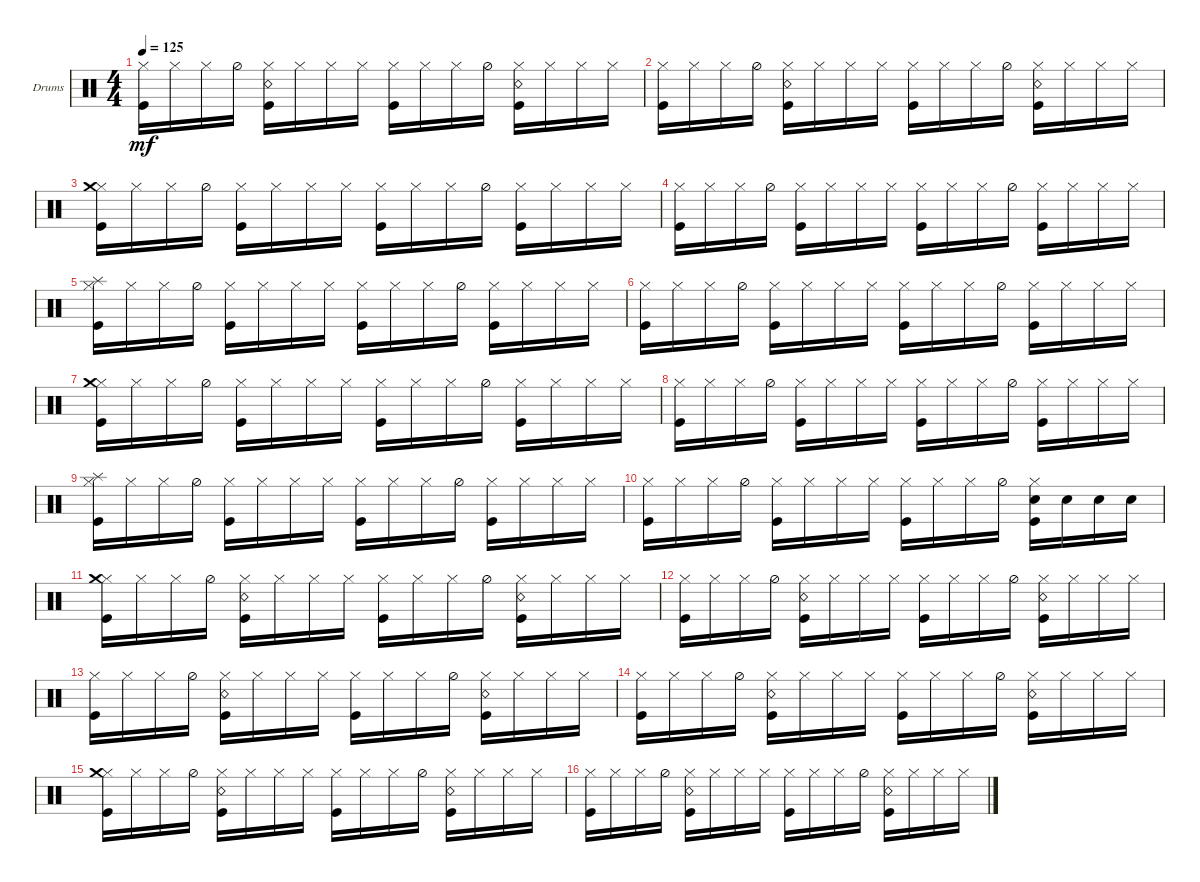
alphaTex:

\defaultSystemsLayout 4
\bracketExtendMode groupsimilarinstruments
\firstSystemTrackNameOrientation horizontal
\otherSystemsTrackNameOrientation horizontal
\track ("Drumkit" "Drums") {instrument percussion}
\staff {score}
\articulation defaults
\ts (4 4)
\tempo 125
\clef neutral
\ks c
("Hi-Hat (closed)" "Kick (hit)").16{dy mf} "Hi-Hat (closed)".16 "Hi-Hat (closed)".16 "Hi-Hat (half)".16 ("Hi-Hat (closed)" "Kick (hit)" "Snare (rim shot)").16 "Hi-Hat (closed)".16 "Hi-Hat (closed)".16 "Hi-Hat (closed)".16 ("Hi-Hat (closed)" "Kick (hit)").16 "Hi-Hat (closed)".16 "Hi-Hat (closed)".16 "Hi-Hat (half)".16 ("Hi-Hat (closed)" "Kick (hit)" "Snare (rim shot)").16 "Hi-Hat (closed)".16 "Hi-Hat (closed)".16 "Hi-Hat (closed)".16 |
("Hi-Hat (closed)" "Kick (hit)").16 "Hi-Hat (closed)".16 "Hi-Hat (closed)".16 "Hi-Hat (half)".16 ("Hi-Hat (closed)" "Kick (hit)" "Snare (rim shot)").16 "Hi-Hat (closed)".16 "Hi-Hat (closed)".16 "Hi-Hat (closed)".16 ("Hi-Hat (closed)" "Kick (hit)").16 "Hi-Hat (closed)".16 "Hi-Hat (closed)".16 "Hi-Hat (half)".16 ("Hi-Hat (closed)" "Kick (hit)" "Snare (rim shot)").16 "Hi-Hat (closed)".16 "Hi-Hat (closed)".16 "Hi-Hat (closed)".16 |
("Hi-Hat (closed)" "Kick (hit)" "Crash medium (hit)").16 "Hi-Hat (closed)".16 "Hi-Hat (closed)".16 "Hi-Hat (half)".16 ("Hi-Hat (closed)" "Kick (hit)").16 "Hi-Hat (closed)".16 "Hi-Hat (closed)".16 "Hi-Hat (closed)".16 ("Hi-Hat (closed)" "Kick (hit)").16 "Hi-Hat (closed)".16 "Hi-Hat (closed)".16 "Hi-Hat (half)".16 ("Hi-Hat (closed)" "Kick (hit)").16 "Hi-Hat (closed)".16 "Hi-Hat (closed)".16 "Hi-Hat (closed)".16 |
("Hi-Hat (closed)" "Kick (hit)").16 "Hi-Hat (closed)".16 "Hi-Hat (closed)".16 "Hi-Hat (half)".16 ("Hi-Hat (closed)" "Kick (hit)").16 "Hi-Hat (closed)".16 "Hi-Hat (closed)".16 "Hi-Hat (closed)".16 ("Hi-Hat (closed)" "Kick (hit)").16 "Hi-Hat (closed)".16 "Hi-Hat (closed)".16 "Hi-Hat (half)".16 ("Hi-Hat (closed)" "Kick (hit)").16 "Hi-Hat (closed)".16 "Hi-Hat (closed)".16 "Hi-Hat (closed)".16 |
("Hi-Hat (closed)" "Kick (hit)" "Splash (hit)").16 "Hi-Hat (closed)".16 "Hi-Hat (closed)".16 "Hi-Hat (half)".16 ("Hi-Hat (closed)" "Kick (hit)").16 "Hi-Hat (closed)".16 "Hi-Hat (closed)".16 "Hi-Hat (closed)".16 ("Hi-Hat (closed)" "Kick (hit)").16 "Hi-Hat (closed)".16 "Hi-Hat (closed)".16 "Hi-Hat (half)".16 ("Hi-Hat (closed)" "Kick (hit)").16 "Hi-Hat (closed)".16 "Hi-Hat (closed)".16 "Hi-Hat (closed)".16 |
("Hi-Hat (closed)" "Kick (hit)").16 "Hi-Hat (closed)".16 "Hi-Hat (closed)".16 "Hi-Hat (half)".16 ("Hi-Hat (closed)" "Kick (hit)").16 "Hi-Hat (closed)".16 "Hi-Hat (closed)".16 "Hi-Hat (closed)".16 ("Hi-Hat (closed)" "Kick (hit)").16 "Hi-Hat (closed)".16 "Hi-Hat (closed)".16 "Hi-Hat (half)".16 ("Hi-Hat (closed)" "Kick (hit)").16 "Hi-Hat (closed)".16 "Hi-Hat (closed)".16 "Hi-Hat (closed)".16 |
("Hi-Hat (closed)" "Kick (hit)" "Crash medium (hit)").16 "Hi-Hat (closed)".16 "Hi-Hat (closed)".16 "Hi-Hat (half)".16 ("Hi-Hat (closed)" "Kick (hit)").16 "Hi-Hat (closed)".16 "Hi-Hat (closed)".16 "Hi-Hat (closed)".16 ("Hi-Hat (closed)" "Kick (hit)").16 "Hi-Hat (closed)".16 "Hi-Hat (closed)".16 "Hi-Hat (half)".16 ("Hi-Hat (closed)" "Kick (hit)").16 "Hi-Hat (closed)".16 "Hi-Hat (closed)".16 "Hi-Hat (closed)".16 |
("Hi-Hat (closed)" "Kick (hit)").16 "Hi-Hat (closed)".16 "Hi-Hat (closed)".16 "Hi-Hat (half)".16 ("Hi-Hat (closed)" "Kick (hit)").16 "Hi-Hat (closed)".16 "Hi-Hat (closed)".16 "Hi-Hat (closed)".16 ("Hi-Hat (closed)" "Kick (hit)").16 "Hi-Hat (closed)".16 "Hi-Hat (closed)".16 "Hi-Hat (half)".16 ("Hi-Hat (closed)" "Kick (hit)").16 "Hi-Hat (closed)".16 "Hi-Hat (closed)".16 "Hi-Hat (closed)".16 |
("Hi-Hat (closed)" "Kick (hit)" "Splash (hit)").16 "Hi-Hat (closed)".16 "Hi-Hat (closed)".16 "Hi-Hat (half)".16 ("Hi-Hat (closed)" "Kick (hit)").16 "Hi-Hat (closed)".16 "Hi-Hat (closed)".16 "Hi-Hat (closed)".16 ("Hi-Hat (closed)" "Kick (hit)").16 "Hi-Hat (closed)".16 "Hi-Hat (closed)".16 "Hi-Hat (half)".16 ("Hi-Hat (closed)" "Kick (hit)").16 "Hi-Hat (closed)".16 "Hi-Hat (closed)".16 "Hi-Hat (closed)".16 |
("Hi-Hat (closed)" "Kick (hit)").16 "Hi-Hat (closed)".16 "Hi-Hat (closed)".16 "Hi-Hat (half)".16 ("Hi-Hat (closed)" "Kick (hit)").16 "Hi-Hat (closed)".16 "Hi-Hat (closed)".16 "Hi-Hat (closed)".16 ("Hi-Hat (closed)" "Kick (hit)").16 "Hi-Hat (closed)".16 "Hi-Hat (closed)".16 "Hi-Hat (half)".16 ("Hi-Hat (closed)" "Kick (hit)" "Snare (hit) 2").16 "Snare (hit) 2".16 "Snare (hit) 2".16 "Snare (hit) 2".16 |
("Hi-Hat (closed)" "Kick (hit)" "Crash medium (hit)").16 "Hi-Hat (closed)".16 "Hi-Hat (closed)".16 "Hi-Hat (half)".16 ("Hi-Hat (closed)" "Kick (hit)" "Snare (rim shot)").16 "Hi-Hat (closed)".16 "Hi-Hat (closed)".16 "Hi-Hat (closed)".16 ("Hi-Hat (closed)" "Kick (hit)").16 "Hi-Hat (closed)".16 "Hi-Hat (closed)".16 "Hi-Hat (half)".16 ("Hi-Hat (closed)" "Kick (hit)" "Snare (rim shot)").16 "Hi-Hat (closed)".16 "Hi-Hat (closed)".16 "Hi-Hat (closed)".16 |
("Hi-Hat (closed)" "Kick (hit)").16 "Hi-Hat (closed)".16 "Hi-Hat (closed)".16 "Hi-Hat (half)".16 ("Hi-Hat (closed)" "Kick (hit)" "Snare (rim shot)").16 "Hi-Hat (closed)".16 "Hi-Hat (closed)".16 "Hi-Hat (closed)".16 ("Hi-Hat (closed)" "Kick (hit)").16 "Hi-Hat (closed)".16 "Hi-Hat (closed)".16 "Hi-Hat (half)".16 ("Hi-Hat (closed)" "Kick (hit)" "Snare (rim shot)").16 "Hi-Hat (closed)".16 "Hi-Hat (closed)".16 "Hi-Hat (closed)".16 |
("Hi-Hat (closed)" "Kick (hit)").16 "Hi-Hat (closed)".16 "Hi-Hat (closed)".16 "Hi-Hat (half)".16 ("Hi-Hat (closed)" "Kick (hit)" "Snare (rim shot)").16 "Hi-Hat (closed)".16 "Hi-Hat (closed)".16 "Hi-Hat (closed)".16 ("Hi-Hat (closed)" "Kick (hit)").16 "Hi-Hat (closed)".16 "Hi-Hat (closed)".16 "Hi-Hat (half)".16 ("Hi-Hat (closed)" "Kick (hit)" "Snare (rim shot)").16 "Hi-Hat (closed)".16 "Hi-Hat (closed)".16 "Hi-Hat (closed)".16 |
("Hi-Hat (closed)" "Kick (hit)").16 "Hi-Hat (closed)".16 "Hi-Hat (closed)".16 "Hi-Hat (half)".16 ("Hi-Hat (closed)" "Kick (hit)" "Snare (rim shot)").16 "Hi-Hat (closed)".16 "Hi-Hat (closed)".16 "Hi-Hat (closed)".16 ("Hi-Hat (closed)" "Kick (hit)").16 "Hi-Hat (closed)".16 "Hi-Hat (closed)".16 "Hi-Hat (half)".16 ("Hi-Hat (closed)" "Kick (hit)" "Snare (rim shot)").16 "Hi-Hat (closed)".16 "Hi-Hat (closed)".16 "Hi-Hat (closed)".16 |
("Hi-Hat (closed)" "Kick (hit)" "Crash medium (hit)").16 "Hi-Hat (closed)".16 "Hi-Hat (closed)".16 "Hi-Hat (half)".16 ("Hi-Hat (closed)" "Kick (hit)" "Snare (rim shot)").16 "Hi-Hat (closed)".16 "Hi-Hat (closed)".16 "Hi-Hat (closed)".16 ("Hi-Hat (closed)" "Kick (hit)").16 "Hi-Hat (closed)".16 "Hi-Hat (closed)".16 "Hi-Hat (half)".16 ("Hi-Hat (closed)" "Kick (hit)" "Snare (rim shot)").16 "Hi-Hat (closed)".16 "Hi-Hat (closed)".16 "Hi-Hat (closed)".16 |
("Hi-Hat (closed)" "Kick (hit)").16 "Hi-Hat (closed)".16 "Hi-Hat (closed)".16 "Hi-Hat (half)".16 ("Hi-Hat (closed)" "Kick (hit)" "Snare (rim shot)").16 "Hi-Hat (closed)".16 "Hi-Hat (closed)".16 "Hi-Hat (closed)".16 ("Hi-Hat (closed)" "Kick (hit)").16 "Hi-Hat (closed)".16 "Hi-Hat (closed)".16 "Hi-Hat (half)".16 ("Hi-Hat (closed)" "Kick (hit)" "Snare (rim shot)").16 "Hi-Hat (closed)".16 "Hi-Hat (closed)".16 "Hi-Hat (closed)".16
